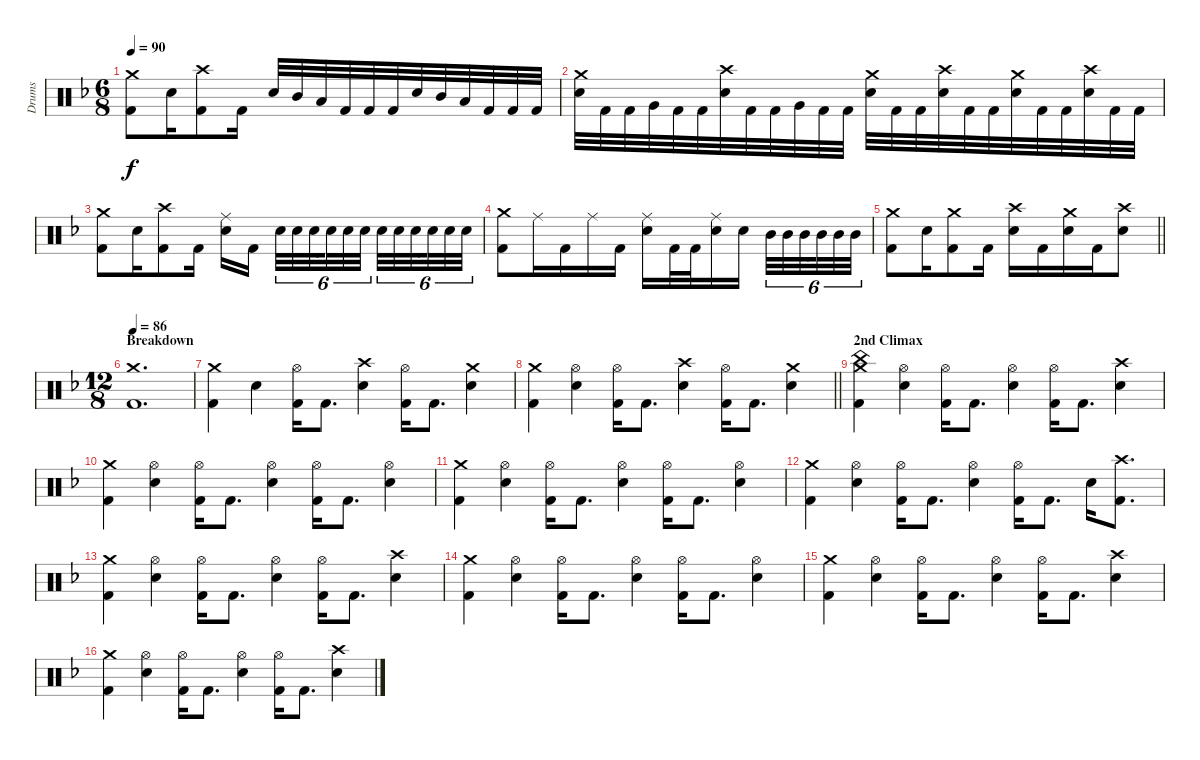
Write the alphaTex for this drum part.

\track ("Drums" "Drums") {instrument percussion}
\staff {score}
\articulation defaults
\ts (6 8)
\tempo 90
\clef neutral
\ks dminor
("Crash medium (hit)" "Kick (hit) 2").8{dy f} "Snare (hit) 2".16 ("Crash high (hit)" "Kick (hit) 2").8 "Kick (hit) 2".16 "Snare (hit) 2".32 "Mid Tom (hit)".32 "Low Tom (hit)".32 "Kick (hit) 2".32 "Kick (hit) 2".32 "Kick (hit) 2".32 "Snare (hit) 2".32 "Mid Tom (hit)".32 "Low Tom (hit)".32 "Kick (hit) 2".32 "Kick (hit) 2".32 "Kick (hit) 2".32 |
("Crash medium (hit)" "Snare (hit) 2").32 "Kick (hit) 2".32 "Kick (hit) 2".32 "Very Low Tom (hit)".32 "Kick (hit) 2".32 "Kick (hit) 2".32 ("Crash high (hit)" "Snare (hit) 2").32 "Kick (hit) 2".32 "Kick (hit) 2".32 "Very Low Tom (hit)".32 "Kick (hit) 2".32 "Kick (hit) 2".32 ("Crash medium (hit)" "Snare (hit) 2").32 "Kick (hit) 2".32 "Kick (hit) 2".32 ("Crash high (hit)" "Snare (hit) 2").32 "Kick (hit) 2".32 "Kick (hit) 2".32 ("Crash medium (hit)" "Snare (hit) 2").32 "Kick (hit) 2".32 "Kick (hit) 2".32 ("Crash high (hit)" "Snare (hit) 2").32 "Kick (hit) 2".32 "Kick (hit) 2".32 |
("Crash medium (hit)" "Kick (hit) 2").8 "Snare (hit) 2".16 ("Crash high (hit)" "Kick (hit) 2").8 "Kick (hit) 2".16 ("Ride (middle)" "Snare (hit) 2").16 "Kick (hit) 2".16{beam splitsecondary} "Snare (hit) 2".32{tu (6 4)} "Snare (hit) 2".32{tu (6 4)} "Snare (hit) 2".32{tu (6 4) beam splitsecondary} "Snare (hit) 2".32{tu (6 4)} "Snare (hit) 2".32{tu (6 4)} "Snare (hit) 2".32{tu (6 4) beam splitsecondary} "Snare (hit) 2".32{tu (6 4)} "Snare (hit) 2".32{tu (6 4)} "Snare (hit) 2".32{tu (6 4) beam splitsecondary} "Snare (hit) 2".32{tu (6 4)} "Snare (hit) 2".32{tu (6 4)} "Snare (hit) 2".32{tu (6 4)} |
("Crash medium (hit)" "Kick (hit) 2").8 "Ride (middle)".16 "Kick (hit) 2".16 "Ride (middle)".16 "Kick (hit) 2".16 ("Ride (middle)" "Snare (hit) 2").16 "Kick (hit) 2".32 "Kick (hit) 2".32 ("Ride (middle)" "Snare (hit) 2").16 "Snare (hit) 2".16{beam splitsecondary} "Mid Tom (hit)".32{tu (6 4)} "Mid Tom (hit)".32{tu (6 4)} "Mid Tom (hit)".32{tu (6 4) beam splitsecondary} "Mid Tom (hit)".32{tu (6 4)} "Mid Tom (hit)".32{tu (6 4)} "Mid Tom (hit)".32{tu (6 4)} |
\barLineRight lightlight
("Crash medium (hit)" "Kick (hit) 2").8 "Snare (hit) 2".16 ("Crash medium (hit)" "Kick (hit) 2").8 "Kick (hit) 2".16 ("Crash high (hit)" "Snare (hit) 2").16 "Kick (hit) 2".16 ("Crash medium (hit)" "Snare (hit) 2").16 "Kick (hit) 2".16 ("Crash high (hit)" "Snare (hit) 2").8 |
\ts (12 8)
\section ("" "Breakdown")
\tempo 86
("Crash medium (hit)" "Kick (hit) 2").1{d} |
("Crash medium (hit)" "Kick (hit) 2").4 "Snare (hit) 2".4 ("Hi-Hat (open)" "Kick (hit) 2").16 "Kick (hit) 2".8{d} ("Crash high (hit)" "Snare (hit) 2").4 ("Hi-Hat (open)" "Kick (hit) 2").16 "Kick (hit) 2".8{d} ("Crash medium (hit)" "Snare (hit) 2").4 |
\barLineRight lightlight
("Crash medium (hit)" "Kick (hit) 2").4 ("Hi-Hat (open)" "Snare (hit) 2").4 ("Hi-Hat (open)" "Kick (hit) 2").16 "Kick (hit) 2".8{d} ("Crash high (hit)" "Snare (hit) 2").4 ("Hi-Hat (open)" "Kick (hit) 2").16 "Kick (hit) 2".8{d} ("Crash medium (hit)" "Snare (hit) 2").4 |
\section ("" "2nd Climax")
("China (hit)" "Crash medium (hit)" "Kick (hit) 2").4 ("Hi-Hat (open)" "Snare (hit) 2").4 ("Hi-Hat (open)" "Kick (hit) 2").16 "Kick (hit) 2".8{d} ("Hi-Hat (open)" "Snare (hit) 2").4 ("Hi-Hat (open)" "Kick (hit) 2").16 "Kick (hit) 2".8{d} ("Crash high (hit)" "Snare (hit) 2").4 |
("Crash medium (hit)" "Kick (hit) 2").4 ("Hi-Hat (open)" "Snare (hit) 2").4 ("Hi-Hat (open)" "Kick (hit) 2").16 "Kick (hit) 2".8{d} ("Hi-Hat (open)" "Snare (hit) 2").4 ("Hi-Hat (open)" "Kick (hit) 2").16 "Kick (hit) 2".8{d} ("Hi-Hat (open)" "Snare (hit) 2").4 |
("Crash medium (hit)" "Kick (hit) 2").4 ("Hi-Hat (open)" "Snare (hit) 2").4 ("Hi-Hat (open)" "Kick (hit) 2").16 "Kick (hit) 2".8{d} ("Hi-Hat (open)" "Snare (hit) 2").4 ("Hi-Hat (open)" "Kick (hit) 2").16 "Kick (hit) 2".8{d} ("Hi-Hat (open)" "Snare (hit) 2").4 |
("Crash medium (hit)" "Kick (hit) 2").4 ("Hi-Hat (open)" "Snare (hit) 2").4 ("Hi-Hat (open)" "Kick (hit) 2").16 "Kick (hit) 2".8{d} ("Hi-Hat (open)" "Snare (hit) 2").4 ("Hi-Hat (open)" "Kick (hit) 2").16 "Kick (hit) 2".8{d} "Snare (hit) 2".16 ("Crash high (hit)" "Kick (hit) 2").8{d} |
("Crash medium (hit)" "Kick (hit) 2").4 ("Hi-Hat (open)" "Snare (hit) 2").4 ("Hi-Hat (open)" "Kick (hit) 2").16 "Kick (hit) 2".8{d} ("Hi-Hat (open)" "Snare (hit) 2").4 ("Hi-Hat (open)" "Kick (hit) 2").16 "Kick (hit) 2".8{d} ("Crash high (hit)" "Snare (hit) 2").4 |
("Crash medium (hit)" "Kick (hit) 2").4 ("Hi-Hat (open)" "Snare (hit) 2").4 ("Hi-Hat (open)" "Kick (hit) 2").16 "Kick (hit) 2".8{d} ("Hi-Hat (open)" "Snare (hit) 2").4 ("Hi-Hat (open)" "Kick (hit) 2").16 "Kick (hit) 2".8{d} ("Hi-Hat (open)" "Snare (hit) 2").4 |
("Crash medium (hit)" "Kick (hit) 2").4 ("Hi-Hat (open)" "Snare (hit) 2").4 ("Hi-Hat (open)" "Kick (hit) 2").16 "Kick (hit) 2".8{d} ("Hi-Hat (open)" "Snare (hit) 2").4 ("Hi-Hat (open)" "Kick (hit) 2").16 "Kick (hit) 2".8{d} ("Crash high (hit)" "Snare (hit) 2").4 |
("Crash medium (hit)" "Kick (hit) 2").4 ("Hi-Hat (open)" "Snare (hit) 2").4 ("Hi-Hat (open)" "Kick (hit) 2").16 "Kick (hit) 2".8{d} ("Hi-Hat (open)" "Snare (hit) 2").4 ("Hi-Hat (open)" "Kick (hit) 2").16 "Kick (hit) 2".8{d} ("Crash high (hit)" "Snare (hit) 2").4
